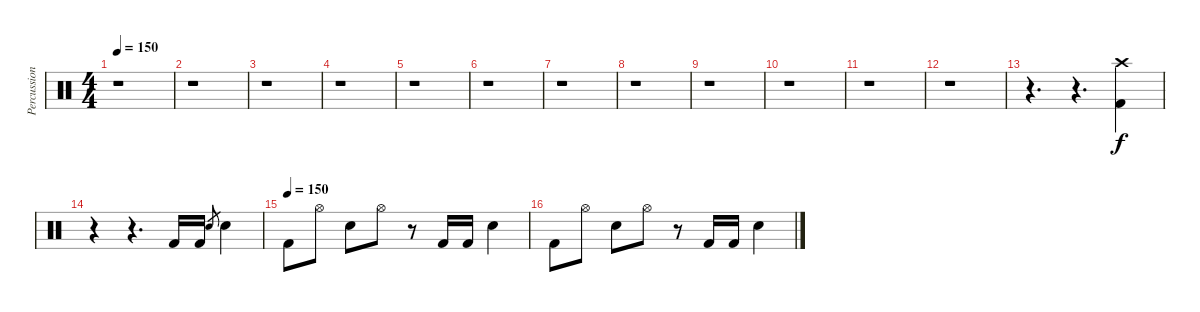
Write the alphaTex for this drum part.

\track ("Percussion" "Percussion") {instrument percussion}
\staff {score}
\articulation defaults
\ts (4 4)
\tempo 150
\clef neutral
\ks c
r.1{dy f} |
r.1 |
r.1 |
r.1 |
r.1 |
r.1 |
r.1 |
r.1 |
r.1 |
r.1 |
r.1 |
r.1 |
r.4{d} r.4{d} ("Crash high (hit)" "Kick (hit) 2").4 |
r.4 r.4{d} "Kick (hit) 2".16 "Kick (hit) 2".16 "Snare (hit) 2".8{gr} "Snare (hit) 2".4 |
\tempo (150)
"Kick (hit) 2".8 "Hi-Hat (open)".8 "Snare (hit) 2".8 "Hi-Hat (open)".8 r.8 "Kick (hit) 2".16 "Kick (hit) 2".16 "Snare (hit) 2".4 |
"Kick (hit) 2".8 "Hi-Hat (open)".8 "Snare (hit) 2".8 "Hi-Hat (open)".8 r.8 "Kick (hit) 2".16 "Kick (hit) 2".16 "Snare (hit) 2".4
